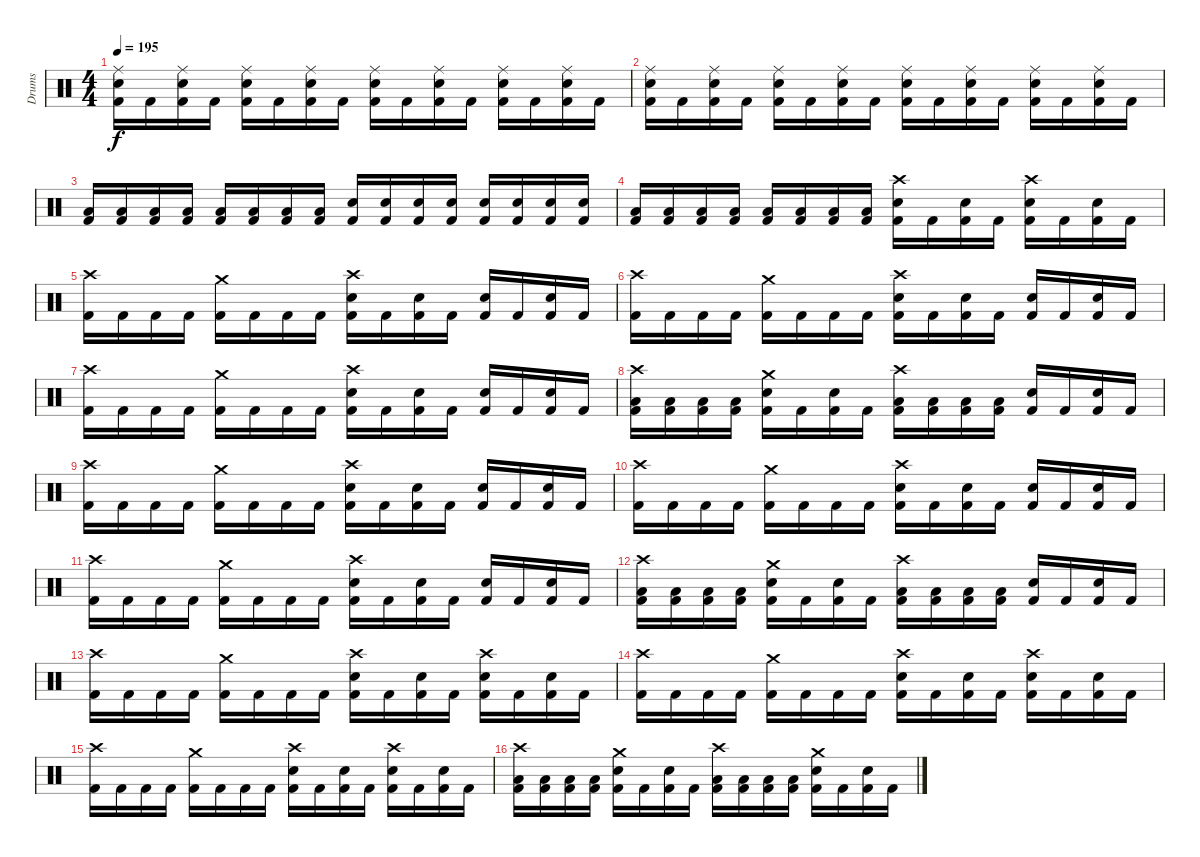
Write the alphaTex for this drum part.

\track ("Drums" "Drums") {instrument percussion}
\staff {score}
\articulation defaults
\ts (4 4)
\tempo 195
\clef neutral
\ks c
("Ride (middle)" "Kick (hit) 2" "Electric Snare (hit)").16{dy f} "Kick (hit) 2".16 ("Ride (middle)" "Kick (hit) 2" "Electric Snare (hit)").16 "Kick (hit) 2".16 ("Ride (middle)" "Kick (hit) 2" "Electric Snare (hit)").16 "Kick (hit) 2".16 ("Ride (middle)" "Kick (hit) 2" "Electric Snare (hit)").16 "Kick (hit) 2".16 ("Ride (middle)" "Kick (hit) 2" "Electric Snare (hit)").16 "Kick (hit) 2".16 ("Ride (middle)" "Kick (hit) 2" "Electric Snare (hit)").16 "Kick (hit) 2".16 ("Ride (middle)" "Kick (hit) 2" "Electric Snare (hit)").16 "Kick (hit) 2".16 ("Ride (middle)" "Kick (hit) 2" "Electric Snare (hit)").16 "Kick (hit) 2".16 |
("Ride (middle)" "Kick (hit) 2" "Electric Snare (hit)").16 "Kick (hit) 2".16 ("Ride (middle)" "Kick (hit) 2" "Electric Snare (hit)").16 "Kick (hit) 2".16 ("Ride (middle)" "Kick (hit) 2" "Electric Snare (hit)").16 "Kick (hit) 2".16 ("Ride (middle)" "Kick (hit) 2" "Electric Snare (hit)").16 "Kick (hit) 2".16 ("Ride (middle)" "Kick (hit) 2" "Electric Snare (hit)").16 "Kick (hit) 2".16 ("Ride (middle)" "Kick (hit) 2" "Electric Snare (hit)").16 "Kick (hit) 2".16 ("Ride (middle)" "Kick (hit) 2" "Electric Snare (hit)").16 "Kick (hit) 2".16 ("Ride (middle)" "Kick (hit) 2" "Electric Snare (hit)").16 "Kick (hit) 2".16 |
("Kick (hit) 2" "Low Tom (hit)").16 ("Kick (hit) 2" "Low Tom (hit)").16 ("Kick (hit) 2" "Low Tom (hit)").16 ("Kick (hit) 2" "Low Tom (hit)").16 ("Kick (hit) 2" "Low Floor Tom (hit)").16 ("Kick (hit) 2" "Low Floor Tom (hit)").16 ("Kick (hit) 2" "Low Floor Tom (hit)").16 ("Kick (hit) 2" "Low Floor Tom (hit)").16 ("Kick (hit) 2" "Electric Snare (hit)").16 ("Kick (hit) 2" "Electric Snare (hit)").16 ("Kick (hit) 2" "Electric Snare (hit)").16 ("Kick (hit) 2" "Electric Snare (hit)").16 ("Kick (hit) 2" "Electric Snare (hit)").16 ("Kick (hit) 2" "Electric Snare (hit)").16 ("Kick (hit) 2" "Electric Snare (hit)").16 ("Kick (hit) 2" "Electric Snare (hit)").16 |
("Kick (hit) 2" "Low Tom (hit)").16 ("Kick (hit) 2" "Low Tom (hit)").16 ("Kick (hit) 2" "Low Tom (hit)").16 ("Kick (hit) 2" "Low Tom (hit)").16 ("Kick (hit) 2" "Low Floor Tom (hit)").16 ("Kick (hit) 2" "Low Floor Tom (hit)").16 ("Kick (hit) 2" "Low Floor Tom (hit)").16 ("Kick (hit) 2" "Low Floor Tom (hit)").16 ("Crash high (hit)" "Kick (hit) 2" "Electric Snare (hit)").16 "Kick (hit) 2".16 ("Kick (hit) 2" "Electric Snare (hit)").16 "Kick (hit) 2".16 ("Crash high (hit)" "Kick (hit) 2" "Electric Snare (hit)").16 "Kick (hit) 2".16 ("Kick (hit) 2" "Electric Snare (hit)").16 "Kick (hit) 2".16 |
("Crash high (hit)" "Kick (hit) 2").16 "Kick (hit) 2".16 "Kick (hit) 2".16 "Kick (hit) 2".16 ("Crash medium (hit)" "Kick (hit) 2").16 "Kick (hit) 2".16 "Kick (hit) 2".16 "Kick (hit) 2".16 ("Crash high (hit)" "Kick (hit) 2" "Electric Snare (hit)").16 "Kick (hit) 2".16 ("Kick (hit) 2" "Electric Snare (hit)").16 "Kick (hit) 2".16 ("Kick (hit) 2" "Electric Snare (hit)").16 "Kick (hit) 2".16 ("Kick (hit) 2" "Electric Snare (hit)").16 "Kick (hit) 2".16 |
("Crash high (hit)" "Kick (hit) 2").16 "Kick (hit) 2".16 "Kick (hit) 2".16 "Kick (hit) 2".16 ("Crash medium (hit)" "Kick (hit) 2").16 "Kick (hit) 2".16 "Kick (hit) 2".16 "Kick (hit) 2".16 ("Crash high (hit)" "Kick (hit) 2" "Electric Snare (hit)").16 "Kick (hit) 2".16 ("Kick (hit) 2" "Electric Snare (hit)").16 "Kick (hit) 2".16 ("Kick (hit) 2" "Electric Snare (hit)").16 "Kick (hit) 2".16 ("Kick (hit) 2" "Electric Snare (hit)").16 "Kick (hit) 2".16 |
("Crash high (hit)" "Kick (hit) 2").16 "Kick (hit) 2".16 "Kick (hit) 2".16 "Kick (hit) 2".16 ("Crash medium (hit)" "Kick (hit) 2").16 "Kick (hit) 2".16 "Kick (hit) 2".16 "Kick (hit) 2".16 ("Crash high (hit)" "Kick (hit) 2" "Electric Snare (hit)").16 "Kick (hit) 2".16 ("Kick (hit) 2" "Electric Snare (hit)").16 "Kick (hit) 2".16 ("Kick (hit) 2" "Electric Snare (hit)").16 "Kick (hit) 2".16 ("Kick (hit) 2" "Electric Snare (hit)").16 "Kick (hit) 2".16 |
("Crash high (hit)" "Kick (hit) 2" "Low Tom (hit)").16 ("Kick (hit) 2" "Low Tom (hit)").16 ("Kick (hit) 2" "Low Tom (hit)").16 ("Kick (hit) 2" "Low Tom (hit)").16 ("Crash medium (hit)" "Kick (hit) 2" "Electric Snare (hit)").16 "Kick (hit) 2".16 ("Kick (hit) 2" "Electric Snare (hit)").16 "Kick (hit) 2".16 ("Crash high (hit)" "Kick (hit) 2" "Low Floor Tom (hit)").16 ("Kick (hit) 2" "Low Floor Tom (hit)").16 ("Kick (hit) 2" "Low Floor Tom (hit)").16 ("Kick (hit) 2" "Low Floor Tom (hit)").16 ("Kick (hit) 2" "Electric Snare (hit)").16 "Kick (hit) 2".16 ("Kick (hit) 2" "Electric Snare (hit)").16 "Kick (hit) 2".16 |
("Crash high (hit)" "Kick (hit) 2").16 "Kick (hit) 2".16 "Kick (hit) 2".16 "Kick (hit) 2".16 ("Crash medium (hit)" "Kick (hit) 2").16 "Kick (hit) 2".16 "Kick (hit) 2".16 "Kick (hit) 2".16 ("Crash high (hit)" "Kick (hit) 2" "Electric Snare (hit)").16 "Kick (hit) 2".16 ("Kick (hit) 2" "Electric Snare (hit)").16 "Kick (hit) 2".16 ("Kick (hit) 2" "Electric Snare (hit)").16 "Kick (hit) 2".16 ("Kick (hit) 2" "Electric Snare (hit)").16 "Kick (hit) 2".16 |
("Crash high (hit)" "Kick (hit) 2").16 "Kick (hit) 2".16 "Kick (hit) 2".16 "Kick (hit) 2".16 ("Crash medium (hit)" "Kick (hit) 2").16 "Kick (hit) 2".16 "Kick (hit) 2".16 "Kick (hit) 2".16 ("Crash high (hit)" "Kick (hit) 2" "Electric Snare (hit)").16 "Kick (hit) 2".16 ("Kick (hit) 2" "Electric Snare (hit)").16 "Kick (hit) 2".16 ("Kick (hit) 2" "Electric Snare (hit)").16 "Kick (hit) 2".16 ("Kick (hit) 2" "Electric Snare (hit)").16 "Kick (hit) 2".16 |
("Crash high (hit)" "Kick (hit) 2").16 "Kick (hit) 2".16 "Kick (hit) 2".16 "Kick (hit) 2".16 ("Crash medium (hit)" "Kick (hit) 2").16 "Kick (hit) 2".16 "Kick (hit) 2".16 "Kick (hit) 2".16 ("Crash high (hit)" "Kick (hit) 2" "Electric Snare (hit)").16 "Kick (hit) 2".16 ("Kick (hit) 2" "Electric Snare (hit)").16 "Kick (hit) 2".16 ("Kick (hit) 2" "Electric Snare (hit)").16 "Kick (hit) 2".16 ("Kick (hit) 2" "Electric Snare (hit)").16 "Kick (hit) 2".16 |
("Crash high (hit)" "Kick (hit) 2" "Low Tom (hit)").16 ("Kick (hit) 2" "Low Tom (hit)").16 ("Kick (hit) 2" "Low Tom (hit)").16 ("Kick (hit) 2" "Low Tom (hit)").16 ("Crash medium (hit)" "Kick (hit) 2" "Electric Snare (hit)").16 "Kick (hit) 2".16 ("Kick (hit) 2" "Electric Snare (hit)").16 "Kick (hit) 2".16 ("Crash high (hit)" "Kick (hit) 2" "Low Floor Tom (hit)").16 ("Kick (hit) 2" "Low Floor Tom (hit)").16 ("Kick (hit) 2" "Low Floor Tom (hit)").16 ("Kick (hit) 2" "Low Floor Tom (hit)").16 ("Kick (hit) 2" "Electric Snare (hit)").16 "Kick (hit) 2".16 ("Kick (hit) 2" "Electric Snare (hit)").16 "Kick (hit) 2".16 |
("Crash high (hit)" "Kick (hit) 2").16 "Kick (hit) 2".16 "Kick (hit) 2".16 "Kick (hit) 2".16 ("Crash medium (hit)" "Kick (hit) 2").16 "Kick (hit) 2".16 "Kick (hit) 2".16 "Kick (hit) 2".16 ("Crash high (hit)" "Kick (hit) 2" "Electric Snare (hit)").16 "Kick (hit) 2".16 ("Kick (hit) 2" "Electric Snare (hit)").16 "Kick (hit) 2".16 ("Crash high (hit)" "Kick (hit) 2" "Electric Snare (hit)").16 "Kick (hit) 2".16 ("Kick (hit) 2" "Electric Snare (hit)").16 "Kick (hit) 2".16 |
("Crash high (hit)" "Kick (hit) 2").16 "Kick (hit) 2".16 "Kick (hit) 2".16 "Kick (hit) 2".16 ("Crash medium (hit)" "Kick (hit) 2").16 "Kick (hit) 2".16 "Kick (hit) 2".16 "Kick (hit) 2".16 ("Crash high (hit)" "Kick (hit) 2" "Electric Snare (hit)").16 "Kick (hit) 2".16 ("Kick (hit) 2" "Electric Snare (hit)").16 "Kick (hit) 2".16 ("Crash high (hit)" "Kick (hit) 2" "Electric Snare (hit)").16 "Kick (hit) 2".16 ("Kick (hit) 2" "Electric Snare (hit)").16 "Kick (hit) 2".16 |
("Crash high (hit)" "Kick (hit) 2").16 "Kick (hit) 2".16 "Kick (hit) 2".16 "Kick (hit) 2".16 ("Crash medium (hit)" "Kick (hit) 2").16 "Kick (hit) 2".16 "Kick (hit) 2".16 "Kick (hit) 2".16 ("Crash high (hit)" "Kick (hit) 2" "Electric Snare (hit)").16 "Kick (hit) 2".16 ("Kick (hit) 2" "Electric Snare (hit)").16 "Kick (hit) 2".16 ("Crash high (hit)" "Kick (hit) 2" "Electric Snare (hit)").16 "Kick (hit) 2".16 ("Kick (hit) 2" "Electric Snare (hit)").16 "Kick (hit) 2".16 |
("Crash high (hit)" "Kick (hit) 2" "Low Tom (hit)").16 ("Kick (hit) 2" "Low Tom (hit)").16 ("Kick (hit) 2" "Low Tom (hit)").16 ("Kick (hit) 2" "Low Tom (hit)").16 ("Crash medium (hit)" "Kick (hit) 2" "Electric Snare (hit)").16 "Kick (hit) 2".16 ("Kick (hit) 2" "Electric Snare (hit)").16 "Kick (hit) 2".16 ("Crash high (hit)" "Kick (hit) 2" "Low Floor Tom (hit)").16 ("Kick (hit) 2" "Low Floor Tom (hit)").16 ("Kick (hit) 2" "Low Floor Tom (hit)").16 ("Kick (hit) 2" "Low Floor Tom (hit)").16 ("Crash medium (hit)" "Kick (hit) 2" "Electric Snare (hit)").16 "Kick (hit) 2".16 ("Kick (hit) 2" "Electric Snare (hit)").16 "Kick (hit) 2".16
